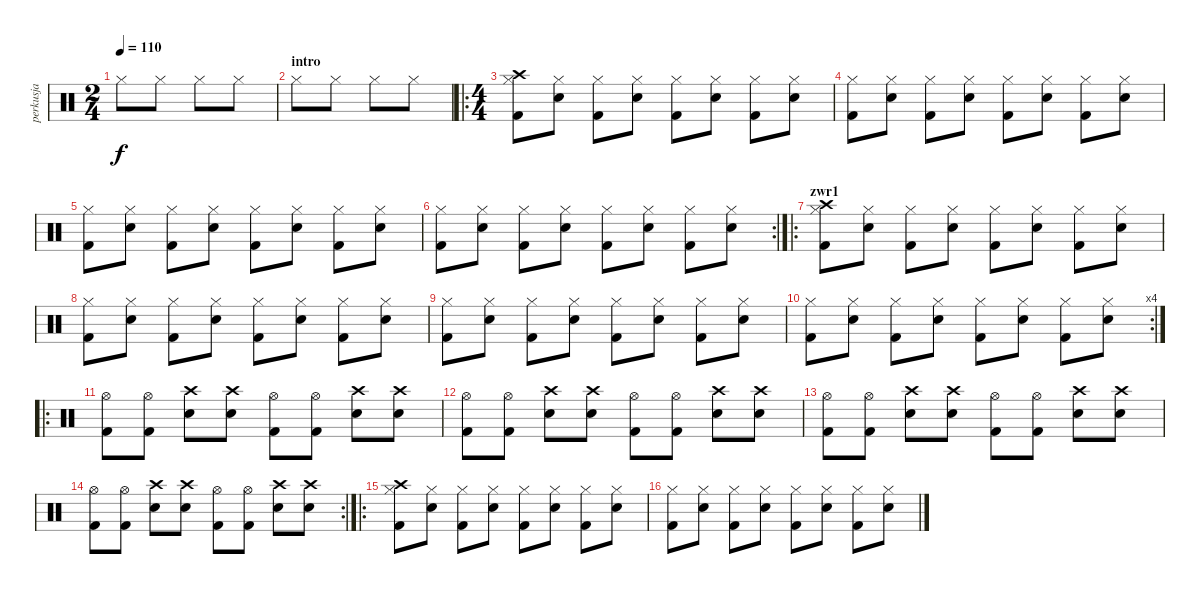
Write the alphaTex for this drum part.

\track ("perkusja" "perkusja") {instrument percussion}
\staff {score}
\articulation defaults
\ts (2 4)
\tempo 110
\clef neutral
\ks c "Hi-Hat (closed)".8{dy f} "Hi-Hat (closed)".8 "Hi-Hat (closed)".8 "Hi-Hat (closed)".8
|
\section ("" "intro")
"Hi-Hat (closed)".8 "Hi-Hat (closed)".8 "Hi-Hat (closed)".8 "Hi-Hat (closed)".8 |
\ro
\ts (4 4)
("Hi-Hat (closed)" "Kick (hit) 2" "Crash high (hit)").8 ("Hi-Hat (closed)" "Electric Snare (hit)").8 ("Hi-Hat (closed)" "Kick (hit) 2").8 ("Hi-Hat (closed)" "Electric Snare (hit)").8 ("Hi-Hat (closed)" "Kick (hit) 2").8 ("Hi-Hat (closed)" "Electric Snare (hit)").8 ("Hi-Hat (closed)" "Kick (hit) 2").8 ("Hi-Hat (closed)" "Electric Snare (hit)").8 |
("Hi-Hat (closed)" "Kick (hit) 2").8 ("Hi-Hat (closed)" "Electric Snare (hit)").8 ("Hi-Hat (closed)" "Kick (hit) 2").8 ("Hi-Hat (closed)" "Electric Snare (hit)").8 ("Hi-Hat (closed)" "Kick (hit) 2").8 ("Hi-Hat (closed)" "Electric Snare (hit)").8 ("Hi-Hat (closed)" "Kick (hit) 2").8 ("Hi-Hat (closed)" "Electric Snare (hit)").8 |
("Hi-Hat (closed)" "Kick (hit) 2").8 ("Hi-Hat (closed)" "Electric Snare (hit)").8 ("Hi-Hat (closed)" "Kick (hit) 2").8 ("Hi-Hat (closed)" "Electric Snare (hit)").8 ("Hi-Hat (closed)" "Kick (hit) 2").8 ("Hi-Hat (closed)" "Electric Snare (hit)").8 ("Hi-Hat (closed)" "Kick (hit) 2").8 ("Hi-Hat (closed)" "Electric Snare (hit)").8 |
\rc 2
("Hi-Hat (closed)" "Kick (hit) 2").8 ("Hi-Hat (closed)" "Electric Snare (hit)").8 ("Hi-Hat (closed)" "Kick (hit) 2").8 ("Hi-Hat (closed)" "Electric Snare (hit)").8 ("Hi-Hat (closed)" "Kick (hit) 2").8 ("Hi-Hat (closed)" "Electric Snare (hit)").8 ("Hi-Hat (closed)" "Kick (hit) 2").8 ("Hi-Hat (closed)" "Electric Snare (hit)").8 |
\ro
\section ("" "zwr1")
("Hi-Hat (closed)" "Kick (hit) 2" "Crash high (hit)").8 ("Hi-Hat (closed)" "Electric Snare (hit)").8 ("Hi-Hat (closed)" "Kick (hit) 2").8 ("Hi-Hat (closed)" "Electric Snare (hit)").8 ("Hi-Hat (closed)" "Kick (hit) 2").8 ("Hi-Hat (closed)" "Electric Snare (hit)").8 ("Hi-Hat (closed)" "Kick (hit) 2").8 ("Hi-Hat (closed)" "Electric Snare (hit)").8 |
("Hi-Hat (closed)" "Kick (hit) 2").8 ("Hi-Hat (closed)" "Electric Snare (hit)").8 ("Hi-Hat (closed)" "Kick (hit) 2").8 ("Hi-Hat (closed)" "Electric Snare (hit)").8 ("Hi-Hat (closed)" "Kick (hit) 2").8 ("Hi-Hat (closed)" "Electric Snare (hit)").8 ("Hi-Hat (closed)" "Kick (hit) 2").8 ("Hi-Hat (closed)" "Electric Snare (hit)").8 |
("Hi-Hat (closed)" "Kick (hit) 2").8 ("Hi-Hat (closed)" "Electric Snare (hit)").8 ("Hi-Hat (closed)" "Kick (hit) 2").8 ("Hi-Hat (closed)" "Electric Snare (hit)").8 ("Hi-Hat (closed)" "Kick (hit) 2").8 ("Hi-Hat (closed)" "Electric Snare (hit)").8 ("Hi-Hat (closed)" "Kick (hit) 2").8 ("Hi-Hat (closed)" "Electric Snare (hit)").8 |
\rc 4
("Hi-Hat (closed)" "Kick (hit) 2").8 ("Hi-Hat (closed)" "Electric Snare (hit)").8 ("Hi-Hat (closed)" "Kick (hit) 2").8 ("Hi-Hat (closed)" "Electric Snare (hit)").8 ("Hi-Hat (closed)" "Kick (hit) 2").8 ("Hi-Hat (closed)" "Electric Snare (hit)").8 ("Hi-Hat (closed)" "Kick (hit) 2").8 ("Hi-Hat (closed)" "Electric Snare (hit)").8 |
\ro
("Hi-Hat (open)" "Kick (hit) 2").8 ("Hi-Hat (open)" "Kick (hit) 2").8 ("Crash high (hit)" "Electric Snare (hit)").8 ("Crash high (hit)" "Electric Snare (hit)").8 ("Hi-Hat (open)" "Kick (hit) 2").8 ("Hi-Hat (open)" "Kick (hit) 2").8 ("Crash high (hit)" "Electric Snare (hit)").8 ("Crash high (hit)" "Electric Snare (hit)").8 |
("Hi-Hat (open)" "Kick (hit) 2").8 ("Hi-Hat (open)" "Kick (hit) 2").8 ("Crash high (hit)" "Electric Snare (hit)").8 ("Crash high (hit)" "Electric Snare (hit)").8 ("Hi-Hat (open)" "Kick (hit) 2").8 ("Hi-Hat (open)" "Kick (hit) 2").8 ("Crash high (hit)" "Electric Snare (hit)").8 ("Crash high (hit)" "Electric Snare (hit)").8 |
("Hi-Hat (open)" "Kick (hit) 2").8 ("Hi-Hat (open)" "Kick (hit) 2").8 ("Crash high (hit)" "Electric Snare (hit)").8 ("Crash high (hit)" "Electric Snare (hit)").8 ("Hi-Hat (open)" "Kick (hit) 2").8 ("Hi-Hat (open)" "Kick (hit) 2").8 ("Crash high (hit)" "Electric Snare (hit)").8 ("Crash high (hit)" "Electric Snare (hit)").8 |
\rc 2
("Hi-Hat (open)" "Kick (hit) 2").8 ("Hi-Hat (open)" "Kick (hit) 2").8 ("Crash high (hit)" "Electric Snare (hit)").8 ("Crash high (hit)" "Electric Snare (hit)").8 ("Hi-Hat (open)" "Kick (hit) 2").8 ("Hi-Hat (open)" "Kick (hit) 2").8 ("Crash high (hit)" "Electric Snare (hit)").8 ("Crash high (hit)" "Electric Snare (hit)").8 |
\ro
("Hi-Hat (closed)" "Kick (hit) 2" "Crash high (hit)").8 ("Hi-Hat (closed)" "Electric Snare (hit)").8 ("Hi-Hat (closed)" "Kick (hit) 2").8 ("Hi-Hat (closed)" "Electric Snare (hit)").8 ("Hi-Hat (closed)" "Kick (hit) 2").8 ("Hi-Hat (closed)" "Electric Snare (hit)").8 ("Hi-Hat (closed)" "Kick (hit) 2").8 ("Hi-Hat (closed)" "Electric Snare (hit)").8 |
("Hi-Hat (closed)" "Kick (hit) 2").8 ("Hi-Hat (closed)" "Electric Snare (hit)").8 ("Hi-Hat (closed)" "Kick (hit) 2").8 ("Hi-Hat (closed)" "Electric Snare (hit)").8 ("Hi-Hat (closed)" "Kick (hit) 2").8 ("Hi-Hat (closed)" "Electric Snare (hit)").8 ("Hi-Hat (closed)" "Kick (hit) 2").8 ("Hi-Hat (closed)" "Electric Snare (hit)").8
